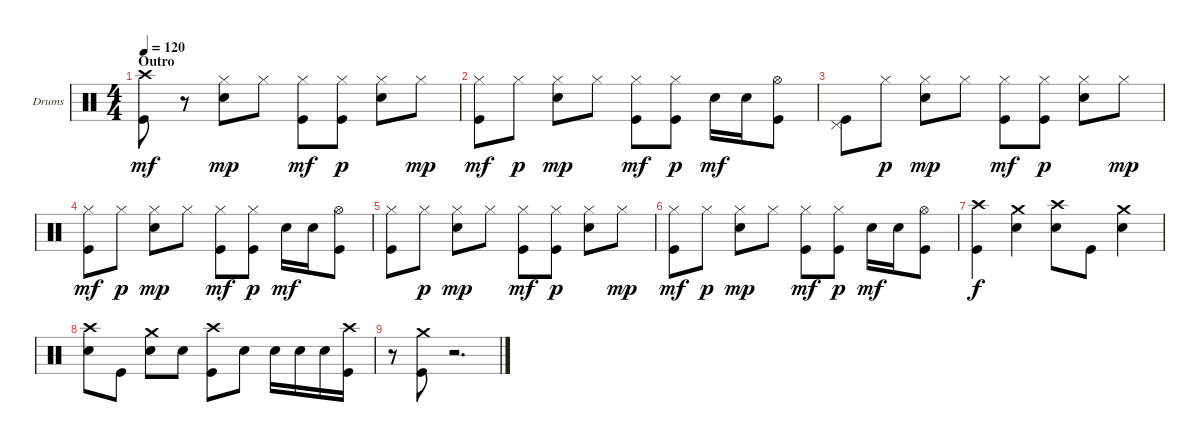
\defaultSystemsLayout 4
\bracketExtendMode groupsimilarinstruments
\firstSystemTrackNameOrientation horizontal
\otherSystemsTrackNameOrientation horizontal
\track ("Drumkit" "Drums") {instrument percussion}
\staff {score}
\articulation defaults
\ts (4 4)
\section ("" "Outro")
\tempo 120
\clef neutral
\ks c
("Crash high (hit)" "Kick (hit)").8{dy mf} r.8 ("Hi-Hat (closed)" "Snare (hit) 2").8{dy mp} "Hi-Hat (closed)".8 ("Hi-Hat (closed)" "Kick (hit)").8{dy mf} ("Hi-Hat (closed)" "Kick (hit)").8{dy p} ("Hi-Hat (closed)" "Snare (hit) 2").8 "Hi-Hat (closed)".8{dy mp} |
("Hi-Hat (closed)" "Kick (hit)").8{dy mf} "Hi-Hat (closed)".8{dy p} ("Hi-Hat (closed)" "Snare (hit) 2").8{dy mp} "Hi-Hat (closed)".8 ("Hi-Hat (closed)" "Kick (hit)").8{dy mf} ("Hi-Hat (closed)" "Kick (hit)").8{dy p} "Snare (hit) 2".16{dy mf} "Snare (hit) 2".16 ("Hi-Hat (open)" "Kick (hit)").8 |
("Pedal Hi-Hat (hit)" "Kick (hit)").8 "Hi-Hat (closed)".8{dy p} ("Hi-Hat (closed)" "Snare (hit) 2").8{dy mp} "Hi-Hat (closed)".8 ("Hi-Hat (closed)" "Kick (hit)").8{dy mf} ("Hi-Hat (closed)" "Kick (hit)").8{dy p} ("Hi-Hat (closed)" "Snare (hit) 2").8 "Hi-Hat (closed)".8{dy mp} |
("Hi-Hat (closed)" "Kick (hit)").8{dy mf} "Hi-Hat (closed)".8{dy p} ("Hi-Hat (closed)" "Snare (hit) 2").8{dy mp} "Hi-Hat (closed)".8 ("Hi-Hat (closed)" "Kick (hit)").8{dy mf} ("Hi-Hat (closed)" "Kick (hit)").8{dy p} "Snare (hit) 2".16{dy mf} "Snare (hit) 2".16 ("Hi-Hat (open)" "Kick (hit)").8 |
("Hi-Hat (closed)" "Kick (hit)").8 "Hi-Hat (closed)".8{dy p} ("Hi-Hat (closed)" "Snare (hit) 2").8{dy mp} "Hi-Hat (closed)".8 ("Hi-Hat (closed)" "Kick (hit)").8{dy mf} ("Hi-Hat (closed)" "Kick (hit)").8{dy p} ("Hi-Hat (closed)" "Snare (hit) 2").8 "Hi-Hat (closed)".8{dy mp} |
("Hi-Hat (closed)" "Kick (hit)").8{dy mf} "Hi-Hat (closed)".8{dy p} ("Hi-Hat (closed)" "Snare (hit) 2").8{dy mp} "Hi-Hat (closed)".8 ("Hi-Hat (closed)" "Kick (hit)").8{dy mf} ("Hi-Hat (closed)" "Kick (hit)").8{dy p} "Snare (hit) 2".16{dy mf} "Snare (hit) 2".16 ("Hi-Hat (open)" "Kick (hit)").8 |
("Crash high (hit)" "Kick (hit)").4{dy f} ("Crash medium (hit)" "Snare (hit) 2").4 ("Crash high (hit)" "Snare (hit) 2").8 "Kick (hit)".8 ("Crash medium (hit)" "Snare (hit) 2").4 |
("Crash high (hit)" "Snare (hit) 2").8 "Kick (hit)".8 ("Crash medium (hit)" "Snare (hit) 2").8 "Snare (hit) 2".8 ("Crash high (hit)" "Kick (hit)").8 "Snare (hit) 2".8 "Snare (hit) 2".16 "Snare (hit) 2".16 "Snare (hit) 2".16 ("Crash high (hit)" "Kick (hit)").16 |
r.8 ("Crash medium (hit)" "Kick (hit)").8 r.2{d}
